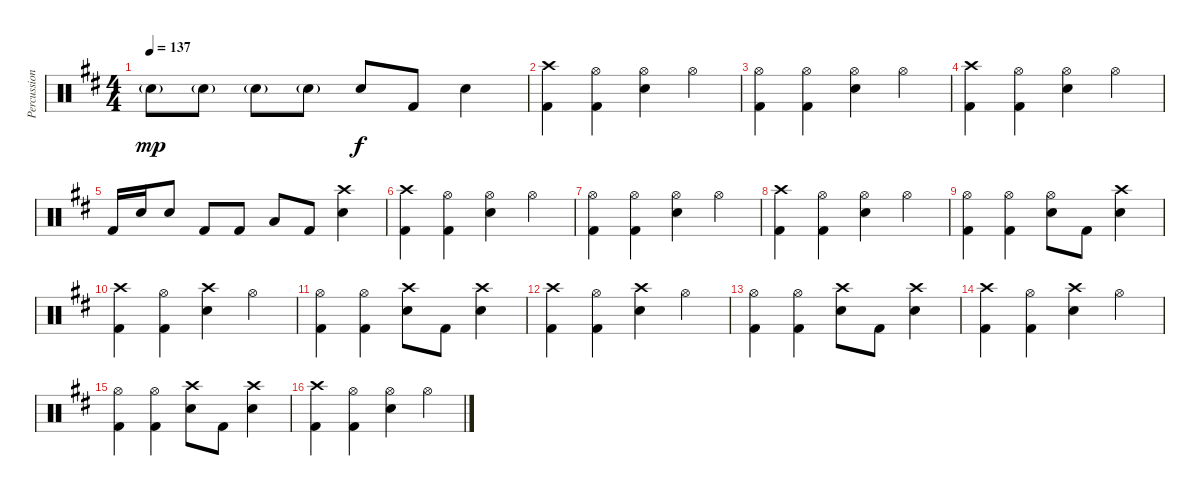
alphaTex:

\track ("Percussion" "Percussion") {instrument percussion}
\staff {score}
\articulation defaults
\ts (4 4)
\tempo 137
\clef neutral
\ks d "Snare (hit) 2"{g}.8{dy mp} "Snare (hit) 2"{g}.8 "Snare (hit) 2"{g}.8 "Snare (hit) 2"{g}.8 "Snare (hit) 2".8{dy f} "Kick (hit) 2".8 "Snare (hit) 2".4
|
("Crash high (hit)" "Kick (hit) 2").4 ("Hi-Hat (open)" "Kick (hit) 2").4 ("Hi-Hat (open)" "Snare (hit) 2").4 "Hi-Hat (open)".4 |
("Hi-Hat (open)" "Kick (hit) 2").4 ("Hi-Hat (open)" "Kick (hit) 2").4 ("Hi-Hat (open)" "Snare (hit) 2").4 "Hi-Hat (open)".4 |
("Crash high (hit)" "Kick (hit) 2").4 ("Hi-Hat (open)" "Kick (hit) 2").4 ("Hi-Hat (open)" "Snare (hit) 2").4 "Hi-Hat (open)".4 |
"Kick (hit) 2".16 "Snare (hit) 2".16 "Snare (hit) 2".8 "Kick (hit) 2".8 "Kick (hit) 2".8 "Low Tom (hit)".8 "Kick (hit) 2".8 ("Crash high (hit)" "Snare (hit) 2").4 |
("Crash high (hit)" "Kick (hit) 2").4 ("Hi-Hat (open)" "Kick (hit) 2").4 ("Hi-Hat (open)" "Snare (hit) 2").4 "Hi-Hat (open)".4 |
("Hi-Hat (open)" "Kick (hit) 2").4 ("Hi-Hat (open)" "Kick (hit) 2").4 ("Hi-Hat (open)" "Snare (hit) 2").4 "Hi-Hat (open)".4 |
("Crash high (hit)" "Kick (hit) 2").4 ("Hi-Hat (open)" "Kick (hit) 2").4 ("Hi-Hat (open)" "Snare (hit) 2").4 "Hi-Hat (open)".4 |
("Hi-Hat (open)" "Kick (hit) 2").4 ("Hi-Hat (open)" "Kick (hit) 2").4 ("Hi-Hat (open)" "Snare (hit) 2").8 "Kick (hit) 2".8 ("Crash high (hit)" "Snare (hit) 2").4 |
("Crash high (hit)" "Kick (hit) 2").4 ("Hi-Hat (open)" "Kick (hit) 2").4 ("Crash high (hit)" "Snare (hit) 2").4 "Hi-Hat (open)".4 |
("Hi-Hat (open)" "Kick (hit) 2").4 ("Hi-Hat (open)" "Kick (hit) 2").4 ("Crash high (hit)" "Snare (hit) 2").8 "Kick (hit) 2".8 ("Crash high (hit)" "Snare (hit) 2").4 |
("Crash high (hit)" "Kick (hit) 2").4 ("Hi-Hat (open)" "Kick (hit) 2").4 ("Crash high (hit)" "Snare (hit) 2").4 "Hi-Hat (open)".4 |
("Hi-Hat (open)" "Kick (hit) 2").4 ("Hi-Hat (open)" "Kick (hit) 2").4 ("Crash high (hit)" "Snare (hit) 2").8 "Kick (hit) 2".8 ("Crash high (hit)" "Snare (hit) 2").4 |
("Crash high (hit)" "Kick (hit) 2").4 ("Hi-Hat (open)" "Kick (hit) 2").4 ("Crash high (hit)" "Snare (hit) 2").4 "Hi-Hat (open)".4 |
("Hi-Hat (open)" "Kick (hit) 2").4 ("Hi-Hat (open)" "Kick (hit) 2").4 ("Crash high (hit)" "Snare (hit) 2").8 "Kick (hit) 2".8 ("Crash high (hit)" "Snare (hit) 2").4 |
("Crash high (hit)" "Kick (hit) 2").4 ("Hi-Hat (open)" "Kick (hit) 2").4 ("Hi-Hat (open)" "Snare (hit) 2").4 "Hi-Hat (open)".4
